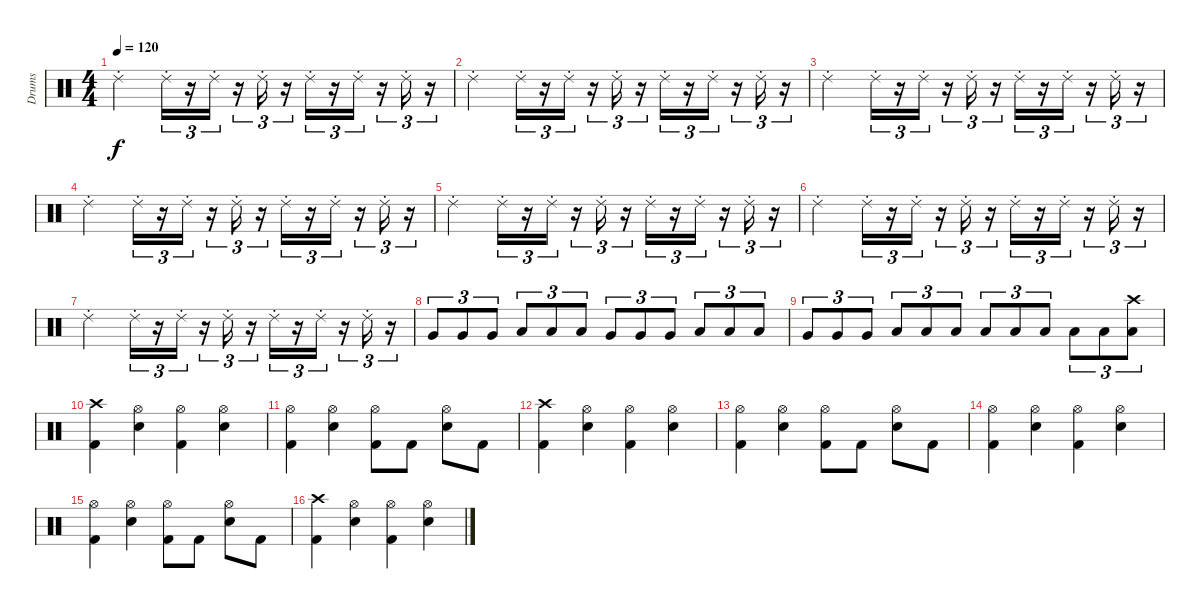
\track ("Drums" "Drums") {instrument percussion}
\staff {score}
\articulation defaults
\ts (4 4)
\tempo 120
\clef neutral
\ks c "Ride (choke) 2".2{dy f} "Ride (choke) 2".16{tu (3 2)}
r.16{tu (3 2)} "Ride (choke) 2".16{tu (3 2)} r.16{tu (3 2)} "Ride (choke) 2".16{tu (3 2)} r.16{tu (3 2)} "Ride (choke) 2".16{tu (3 2)} r.16{tu (3 2)} "Ride (choke) 2".16{tu (3 2)} r.16{tu (3 2)} "Ride (choke) 2".16{tu (3 2)} r.16{tu (3 2)} |
"Ride (choke) 2".2 "Ride (choke) 2".16{tu (3 2)} r.16{tu (3 2)} "Ride (choke) 2".16{tu (3 2)} r.16{tu (3 2)} "Ride (choke) 2".16{tu (3 2)} r.16{tu (3 2)} "Ride (choke) 2".16{tu (3 2)} r.16{tu (3 2)} "Ride (choke) 2".16{tu (3 2)} r.16{tu (3 2)} "Ride (choke) 2".16{tu (3 2)} r.16{tu (3 2)} |
"Ride (choke) 2".2 "Ride (choke) 2".16{tu (3 2)} r.16{tu (3 2)} "Ride (choke) 2".16{tu (3 2)} r.16{tu (3 2)} "Ride (choke) 2".16{tu (3 2)} r.16{tu (3 2)} "Ride (choke) 2".16{tu (3 2)} r.16{tu (3 2)} "Ride (choke) 2".16{tu (3 2)} r.16{tu (3 2)} "Ride (choke) 2".16{tu (3 2)} r.16{tu (3 2)} |
"Ride (choke) 2".2 "Ride (choke) 2".16{tu (3 2)} r.16{tu (3 2)} "Ride (choke) 2".16{tu (3 2)} r.16{tu (3 2)} "Ride (choke) 2".16{tu (3 2)} r.16{tu (3 2)} "Ride (choke) 2".16{tu (3 2)} r.16{tu (3 2)} "Ride (choke) 2".16{tu (3 2)} r.16{tu (3 2)} "Ride (choke) 2".16{tu (3 2)} r.16{tu (3 2)} |
"Ride (choke) 2".2 "Ride (choke) 2".16{tu (3 2)} r.16{tu (3 2)} "Ride (choke) 2".16{tu (3 2)} r.16{tu (3 2)} "Ride (choke) 2".16{tu (3 2)} r.16{tu (3 2)} "Ride (choke) 2".16{tu (3 2)} r.16{tu (3 2)} "Ride (choke) 2".16{tu (3 2)} r.16{tu (3 2)} "Ride (choke) 2".16{tu (3 2)} r.16{tu (3 2)} |
"Ride (choke) 2".2 "Ride (choke) 2".16{tu (3 2)} r.16{tu (3 2)} "Ride (choke) 2".16{tu (3 2)} r.16{tu (3 2)} "Ride (choke) 2".16{tu (3 2)} r.16{tu (3 2)} "Ride (choke) 2".16{tu (3 2)} r.16{tu (3 2)} "Ride (choke) 2".16{tu (3 2)} r.16{tu (3 2)} "Ride (choke) 2".16{tu (3 2)} r.16{tu (3 2)} |
"Ride (choke) 2".2 "Ride (choke) 2".16{tu (3 2)} r.16{tu (3 2)} "Ride (choke) 2".16{tu (3 2)} r.16{tu (3 2)} "Ride (choke) 2".16{tu (3 2)} r.16{tu (3 2)} "Ride (choke) 2".16{tu (3 2)} r.16{tu (3 2)} "Ride (choke) 2".16{tu (3 2)} r.16{tu (3 2)} "Ride (choke) 2".16{tu (3 2)} r.16{tu (3 2)} |
"Very Low Tom (hit)".8{tu (3 2)} "Very Low Tom (hit)".8{tu (3 2)} "Very Low Tom (hit)".8{tu (3 2)} "Low Floor Tom (hit)".8{tu (3 2)} "Low Floor Tom (hit)".8{tu (3 2)} "Low Floor Tom (hit)".8{tu (3 2)} "Very Low Tom (hit)".8{tu (3 2)} "Very Low Tom (hit)".8{tu (3 2)} "Very Low Tom (hit)".8{tu (3 2)} "Low Floor Tom (hit)".8{tu (3 2)} "Low Floor Tom (hit)".8{tu (3 2)} "Low Floor Tom (hit)".8{tu (3 2)} |
"Very Low Tom (hit)".8{tu (3 2)} "Very Low Tom (hit)".8{tu (3 2)} "Very Low Tom (hit)".8{tu (3 2)} "Low Floor Tom (hit)".8{tu (3 2)} "Low Floor Tom (hit)".8{tu (3 2)} "Low Floor Tom (hit)".8{tu (3 2)} "Low Floor Tom (hit)".8{tu (3 2)} "Low Floor Tom (hit)".8{tu (3 2)} "Low Floor Tom (hit)".8{tu (3 2)} "Low Floor Tom (hit)".8{tu (3 2)} "Low Floor Tom (hit)".8{tu (3 2)} ("Crash high (hit)" "Low Floor Tom (hit)").8{tu (3 2)} |
("Crash high (hit)" "Kick (hit) 2").4 ("Hi-Hat (open)" "Electric Snare (hit)").4 ("Hi-Hat (open)" "Kick (hit) 2").4 ("Hi-Hat (open)" "Electric Snare (hit)").4 |
("Hi-Hat (open)" "Kick (hit) 2").4 ("Hi-Hat (open)" "Electric Snare (hit)").4 ("Hi-Hat (open)" "Kick (hit) 2").8 "Kick (hit) 2".8 ("Hi-Hat (open)" "Electric Snare (hit)").8 "Kick (hit) 2".8 |
("Crash high (hit)" "Kick (hit) 2").4 ("Hi-Hat (open)" "Electric Snare (hit)").4 ("Hi-Hat (open)" "Kick (hit) 2").4 ("Hi-Hat (open)" "Electric Snare (hit)").4 |
("Hi-Hat (open)" "Kick (hit) 2").4 ("Hi-Hat (open)" "Electric Snare (hit)").4 ("Hi-Hat (open)" "Kick (hit) 2").8 "Kick (hit) 2".8 ("Hi-Hat (open)" "Electric Snare (hit)").8 "Kick (hit) 2".8 |
("Hi-Hat (open)" "Kick (hit) 2").4 ("Hi-Hat (open)" "Electric Snare (hit)").4 ("Hi-Hat (open)" "Kick (hit) 2").4 ("Hi-Hat (open)" "Electric Snare (hit)").4 |
("Hi-Hat (open)" "Kick (hit) 2").4 ("Hi-Hat (open)" "Electric Snare (hit)").4 ("Hi-Hat (open)" "Kick (hit) 2").8 "Kick (hit) 2".8 ("Hi-Hat (open)" "Electric Snare (hit)").8 "Kick (hit) 2".8 |
("Crash high (hit)" "Kick (hit) 2").4 ("Hi-Hat (open)" "Electric Snare (hit)").4 ("Hi-Hat (open)" "Kick (hit) 2").4 ("Hi-Hat (open)" "Electric Snare (hit)").4
